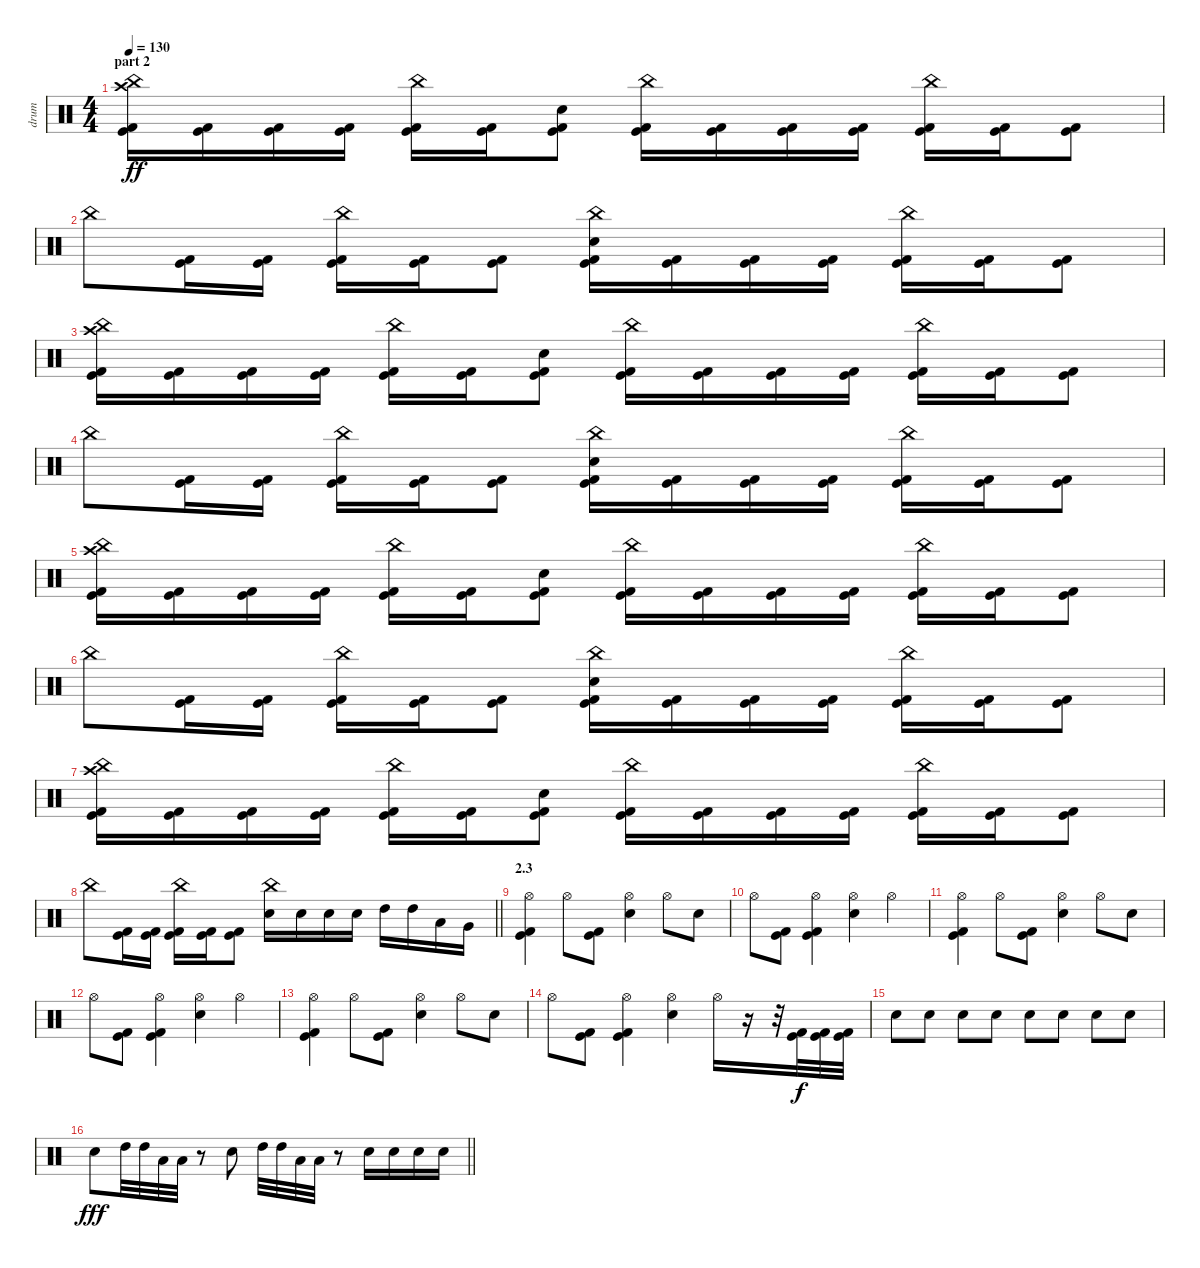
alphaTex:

\track ("drum" "drum") {instrument percussion}
\staff {score}
\articulation defaults
\ts (4 4)
\section ("" "part 2")
\tempo 130
\clef neutral
\ks c
("China (hit)" "Crash high (hit)" "Kick (hit)" "Kick (hit) 2").16{dy ff} ("Kick (hit)" "Kick (hit) 2").16 ("Kick (hit)" "Kick (hit) 2").16 ("Kick (hit)" "Kick (hit) 2").16 ("China (hit)" "Kick (hit)" "Kick (hit) 2").16 ("Kick (hit)" "Kick (hit) 2").16 ("Snare (hit) 2" "Kick (hit)" "Kick (hit) 2").8 ("China (hit)" "Kick (hit)" "Kick (hit) 2").16 ("Kick (hit)" "Kick (hit) 2").16 ("Kick (hit)" "Kick (hit) 2").16 ("Kick (hit)" "Kick (hit) 2").16 ("China (hit)" "Kick (hit)" "Kick (hit) 2").16 ("Kick (hit)" "Kick (hit) 2").16 ("Kick (hit)" "Kick (hit) 2").8 |
"China (hit)".8 ("Kick (hit)" "Kick (hit) 2").16 ("Kick (hit)" "Kick (hit) 2").16 ("China (hit)" "Kick (hit)" "Kick (hit) 2").16 ("Kick (hit)" "Kick (hit) 2").16 ("Kick (hit)" "Kick (hit) 2").8 ("China (hit)" "Snare (hit) 2" "Kick (hit)" "Kick (hit) 2").16 ("Kick (hit)" "Kick (hit) 2").16 ("Kick (hit)" "Kick (hit) 2").16 ("Kick (hit)" "Kick (hit) 2").16 ("China (hit)" "Kick (hit)" "Kick (hit) 2").16 ("Kick (hit)" "Kick (hit) 2").16 ("Kick (hit)" "Kick (hit) 2").8 |
("China (hit)" "Crash high (hit)" "Kick (hit)" "Kick (hit) 2").16 ("Kick (hit)" "Kick (hit) 2").16 ("Kick (hit)" "Kick (hit) 2").16 ("Kick (hit)" "Kick (hit) 2").16 ("China (hit)" "Kick (hit)" "Kick (hit) 2").16 ("Kick (hit)" "Kick (hit) 2").16 ("Snare (hit) 2" "Kick (hit)" "Kick (hit) 2").8 ("China (hit)" "Kick (hit)" "Kick (hit) 2").16 ("Kick (hit)" "Kick (hit) 2").16 ("Kick (hit)" "Kick (hit) 2").16 ("Kick (hit)" "Kick (hit) 2").16 ("China (hit)" "Kick (hit)" "Kick (hit) 2").16 ("Kick (hit)" "Kick (hit) 2").16 ("Kick (hit)" "Kick (hit) 2").8 |
"China (hit)".8 ("Kick (hit)" "Kick (hit) 2").16 ("Kick (hit)" "Kick (hit) 2").16 ("China (hit)" "Kick (hit)" "Kick (hit) 2").16 ("Kick (hit)" "Kick (hit) 2").16 ("Kick (hit)" "Kick (hit) 2").8 ("China (hit)" "Snare (hit) 2" "Kick (hit)" "Kick (hit) 2").16 ("Kick (hit)" "Kick (hit) 2").16 ("Kick (hit)" "Kick (hit) 2").16 ("Kick (hit)" "Kick (hit) 2").16 ("China (hit)" "Kick (hit)" "Kick (hit) 2").16 ("Kick (hit)" "Kick (hit) 2").16 ("Kick (hit)" "Kick (hit) 2").8 |
("China (hit)" "Crash high (hit)" "Kick (hit)" "Kick (hit) 2").16 ("Kick (hit)" "Kick (hit) 2").16 ("Kick (hit)" "Kick (hit) 2").16 ("Kick (hit)" "Kick (hit) 2").16 ("China (hit)" "Kick (hit)" "Kick (hit) 2").16 ("Kick (hit)" "Kick (hit) 2").16 ("Snare (hit) 2" "Kick (hit)" "Kick (hit) 2").8 ("China (hit)" "Kick (hit)" "Kick (hit) 2").16 ("Kick (hit)" "Kick (hit) 2").16 ("Kick (hit)" "Kick (hit) 2").16 ("Kick (hit)" "Kick (hit) 2").16 ("China (hit)" "Kick (hit)" "Kick (hit) 2").16 ("Kick (hit)" "Kick (hit) 2").16 ("Kick (hit)" "Kick (hit) 2").8 |
"China (hit)".8 ("Kick (hit)" "Kick (hit) 2").16 ("Kick (hit)" "Kick (hit) 2").16 ("China (hit)" "Kick (hit)" "Kick (hit) 2").16 ("Kick (hit)" "Kick (hit) 2").16 ("Kick (hit)" "Kick (hit) 2").8 ("China (hit)" "Snare (hit) 2" "Kick (hit)" "Kick (hit) 2").16 ("Kick (hit)" "Kick (hit) 2").16 ("Kick (hit)" "Kick (hit) 2").16 ("Kick (hit)" "Kick (hit) 2").16 ("China (hit)" "Kick (hit)" "Kick (hit) 2").16 ("Kick (hit)" "Kick (hit) 2").16 ("Kick (hit)" "Kick (hit) 2").8 |
("China (hit)" "Crash high (hit)" "Kick (hit)" "Kick (hit) 2").16 ("Kick (hit)" "Kick (hit) 2").16 ("Kick (hit)" "Kick (hit) 2").16 ("Kick (hit)" "Kick (hit) 2").16 ("China (hit)" "Kick (hit)" "Kick (hit) 2").16 ("Kick (hit)" "Kick (hit) 2").16 ("Snare (hit) 2" "Kick (hit)" "Kick (hit) 2").8 ("China (hit)" "Kick (hit)" "Kick (hit) 2").16 ("Kick (hit)" "Kick (hit) 2").16 ("Kick (hit)" "Kick (hit) 2").16 ("Kick (hit)" "Kick (hit) 2").16 ("China (hit)" "Kick (hit)" "Kick (hit) 2").16 ("Kick (hit)" "Kick (hit) 2").16 ("Kick (hit)" "Kick (hit) 2").8 |
\barLineRight lightlight "China (hit)".8
("Kick (hit)" "Kick (hit) 2").16 ("Kick (hit)" "Kick (hit) 2").16 ("China (hit)" "Kick (hit)" "Kick (hit) 2").16 ("Kick (hit)" "Kick (hit) 2").16 ("Kick (hit)" "Kick (hit) 2").8 ("China (hit)" "Snare (hit) 2").16 "Snare (hit) 2".16 "Snare (hit) 2".16 "Snare (hit) 2".16 "High Tom (hit)".16 "High Tom (hit)".16 "Low Tom (hit)".16 "Very Low Tom (hit)".16 |
\section ("" "2.3")
("Hi-Hat (open)" "Kick (hit)" "Kick (hit) 2").4 "Hi-Hat (open)".8 ("Kick (hit)" "Kick (hit) 2").8 ("Hi-Hat (open)" "Snare (hit) 2").4 "Hi-Hat (open)".8 "Snare (hit) 2".8 |
"Hi-Hat (open)".8 ("Kick (hit)" "Kick (hit) 2").8 ("Hi-Hat (open)" "Kick (hit)" "Kick (hit) 2").4 ("Hi-Hat (open)" "Snare (hit) 2").4 "Hi-Hat (open)".4 |
("Hi-Hat (open)" "Kick (hit)" "Kick (hit) 2").4 "Hi-Hat (open)".8 ("Kick (hit)" "Kick (hit) 2").8 ("Hi-Hat (open)" "Snare (hit) 2").4 "Hi-Hat (open)".8 "Snare (hit) 2".8 |
"Hi-Hat (open)".8 ("Kick (hit)" "Kick (hit) 2").8 ("Hi-Hat (open)" "Kick (hit)" "Kick (hit) 2").4 ("Hi-Hat (open)" "Snare (hit) 2").4 "Hi-Hat (open)".4 |
("Hi-Hat (open)" "Kick (hit)" "Kick (hit) 2").4 "Hi-Hat (open)".8 ("Kick (hit)" "Kick (hit) 2").8 ("Hi-Hat (open)" "Snare (hit) 2").4 "Hi-Hat (open)".8 "Snare (hit) 2".8 |
"Hi-Hat (open)".8 ("Kick (hit)" "Kick (hit) 2").8 ("Hi-Hat (open)" "Kick (hit)" "Kick (hit) 2").4 ("Hi-Hat (open)" "Snare (hit) 2").4 "Hi-Hat (open)".16 r.16 r.32 ("Kick (hit)" "Kick (hit) 2").32{dy f} ("Kick (hit)" "Kick (hit) 2").32 ("Kick (hit)" "Kick (hit) 2").32 |
"Snare (hit) 2".8 "Snare (hit) 2".8 "Snare (hit) 2".8 "Snare (hit) 2".8 "Snare (hit) 2".8 "Snare (hit) 2".8 "Snare (hit) 2".8 "Snare (hit) 2".8 |
\barLineRight lightlight "Snare (hit) 2".8{dy fff} "High Tom (hit)".32 "High Tom (hit)".32 "Low Tom (hit)".32 "Low Floor Tom (hit)".32
r.8 "Snare (hit) 2".8 "High Tom (hit)".32 "High Tom (hit)".32 "Low Tom (hit)".32 "Low Floor Tom (hit)".32 r.8 "Snare (hit) 2".16 "Snare (hit) 2".16 "Snare (hit) 2".16 "Snare (hit) 2".16
